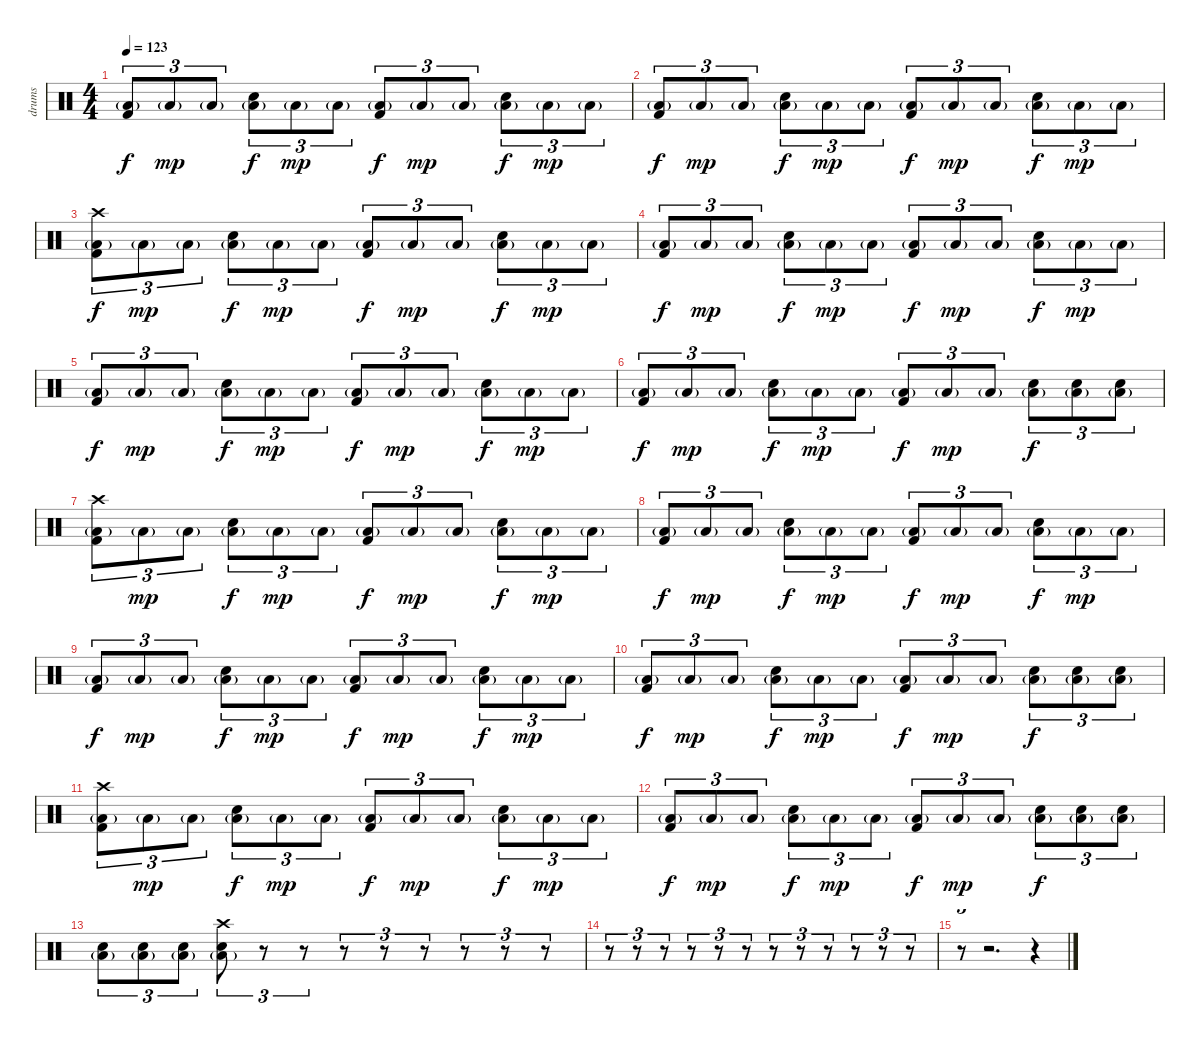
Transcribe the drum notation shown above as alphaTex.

\track ("drums" "drums") {instrument percussion}
\staff {score}
\articulation defaults
\ts (4 4)
\tempo 123
\clef neutral
\ks c
("Low Floor Tom (hit)"{g} "Kick (hit) 2").8{tu (3 2) txt "" dy f} "Low Floor Tom (hit)"{g}.8{tu (3 2) txt "" dy mp} "Low Floor Tom (hit)"{g}.8{tu (3 2) txt ""} ("Low Floor Tom (hit)"{g} "Electric Snare (hit)").8{tu (3 2) txt "" dy f} "Low Floor Tom (hit)"{g}.8{tu (3 2) txt "" dy mp} "Low Floor Tom (hit)"{g}.8{tu (3 2) txt ""} ("Low Floor Tom (hit)"{g} "Kick (hit) 2").8{tu (3 2) txt "" dy f} "Low Floor Tom (hit)"{g}.8{tu (3 2) txt "" dy mp} "Low Floor Tom (hit)"{g}.8{tu (3 2) txt ""} ("Low Floor Tom (hit)"{g} "Electric Snare (hit)").8{tu (3 2) txt "" dy f} "Low Floor Tom (hit)"{g}.8{tu (3 2) txt "" dy mp} "Low Floor Tom (hit)"{g}.8{tu (3 2) txt ""} |
("Low Floor Tom (hit)"{g} "Kick (hit) 2").8{tu (3 2) txt "" dy f} "Low Floor Tom (hit)"{g}.8{tu (3 2) txt "" dy mp} "Low Floor Tom (hit)"{g}.8{tu (3 2) txt ""} ("Low Floor Tom (hit)"{g} "Electric Snare (hit)").8{tu (3 2) txt "" dy f} "Low Floor Tom (hit)"{g}.8{tu (3 2) txt "" dy mp} "Low Floor Tom (hit)"{g}.8{tu (3 2) txt ""} ("Low Floor Tom (hit)"{g} "Kick (hit) 2").8{tu (3 2) txt "" dy f} "Low Floor Tom (hit)"{g}.8{tu (3 2) txt "" dy mp} "Low Floor Tom (hit)"{g}.8{tu (3 2) txt ""} ("Low Floor Tom (hit)"{g} "Electric Snare (hit)").8{tu (3 2) txt "" dy f} "Low Floor Tom (hit)"{g}.8{tu (3 2) txt "" dy mp} "Low Floor Tom (hit)"{g}.8{tu (3 2) txt ""} |
("Low Floor Tom (hit)"{g} "Kick (hit) 2" "Crash high (hit)").8{tu (3 2) txt "" dy f} "Low Floor Tom (hit)"{g}.8{tu (3 2) txt "" dy mp} "Low Floor Tom (hit)"{g}.8{tu (3 2) txt ""} ("Low Floor Tom (hit)"{g} "Electric Snare (hit)").8{tu (3 2) txt "" dy f} "Low Floor Tom (hit)"{g}.8{tu (3 2) txt "" dy mp} "Low Floor Tom (hit)"{g}.8{tu (3 2) txt ""} ("Low Floor Tom (hit)"{g} "Kick (hit) 2").8{tu (3 2) txt "" dy f} "Low Floor Tom (hit)"{g}.8{tu (3 2) txt "" dy mp} "Low Floor Tom (hit)"{g}.8{tu (3 2) txt ""} ("Low Floor Tom (hit)"{g} "Electric Snare (hit)").8{tu (3 2) txt "" dy f} "Low Floor Tom (hit)"{g}.8{tu (3 2) txt "" dy mp} "Low Floor Tom (hit)"{g}.8{tu (3 2) txt ""} |
("Low Floor Tom (hit)"{g} "Kick (hit) 2").8{tu (3 2) txt "" dy f} "Low Floor Tom (hit)"{g}.8{tu (3 2) txt "" dy mp} "Low Floor Tom (hit)"{g}.8{tu (3 2) txt ""} ("Low Floor Tom (hit)"{g} "Electric Snare (hit)").8{tu (3 2) txt "" dy f} "Low Floor Tom (hit)"{g}.8{tu (3 2) txt "" dy mp} "Low Floor Tom (hit)"{g}.8{tu (3 2) txt ""} ("Low Floor Tom (hit)"{g} "Kick (hit) 2").8{tu (3 2) txt "" dy f} "Low Floor Tom (hit)"{g}.8{tu (3 2) txt "" dy mp} "Low Floor Tom (hit)"{g}.8{tu (3 2) txt ""} ("Low Floor Tom (hit)"{g} "Electric Snare (hit)").8{tu (3 2) txt "" dy f} "Low Floor Tom (hit)"{g}.8{tu (3 2) txt "" dy mp} "Low Floor Tom (hit)"{g}.8{tu (3 2) txt ""} |
("Low Floor Tom (hit)"{g} "Kick (hit) 2").8{tu (3 2) txt "" dy f} "Low Floor Tom (hit)"{g}.8{tu (3 2) txt "" dy mp} "Low Floor Tom (hit)"{g}.8{tu (3 2) txt ""} ("Low Floor Tom (hit)"{g} "Electric Snare (hit)").8{tu (3 2) txt "" dy f} "Low Floor Tom (hit)"{g}.8{tu (3 2) txt "" dy mp} "Low Floor Tom (hit)"{g}.8{tu (3 2) txt ""} ("Low Floor Tom (hit)"{g} "Kick (hit) 2").8{tu (3 2) txt "" dy f} "Low Floor Tom (hit)"{g}.8{tu (3 2) txt "" dy mp} "Low Floor Tom (hit)"{g}.8{tu (3 2) txt ""} ("Low Floor Tom (hit)"{g} "Electric Snare (hit)").8{tu (3 2) txt "" dy f} "Low Floor Tom (hit)"{g}.8{tu (3 2) txt "" dy mp} "Low Floor Tom (hit)"{g}.8{tu (3 2) txt ""} |
("Low Floor Tom (hit)"{g} "Kick (hit) 2").8{tu (3 2) txt "" dy f} "Low Floor Tom (hit)"{g}.8{tu (3 2) txt "" dy mp} "Low Floor Tom (hit)"{g}.8{tu (3 2) txt ""} ("Low Floor Tom (hit)"{g} "Electric Snare (hit)").8{tu (3 2) txt "" dy f} "Low Floor Tom (hit)"{g}.8{tu (3 2) txt "" dy mp} "Low Floor Tom (hit)"{g}.8{tu (3 2) txt ""} ("Low Floor Tom (hit)"{g} "Kick (hit) 2").8{tu (3 2) txt "" dy f} "Low Floor Tom (hit)"{g}.8{tu (3 2) txt "" dy mp} "Low Floor Tom (hit)"{g}.8{tu (3 2) txt ""} ("Low Floor Tom (hit)"{g} "Electric Snare (hit)").8{tu (3 2) txt "" dy f} ("Low Floor Tom (hit)"{g} "Electric Snare (hit)").8{tu (3 2) txt ""} ("Low Floor Tom (hit)"{g} "Electric Snare (hit)").8{tu (3 2) txt ""} |
("Low Floor Tom (hit)"{g} "Kick (hit) 2" "Crash high (hit)").8{tu (3 2) txt ""} "Low Floor Tom (hit)"{g}.8{tu (3 2) txt "" dy mp} "Low Floor Tom (hit)"{g}.8{tu (3 2) txt ""} ("Low Floor Tom (hit)"{g} "Electric Snare (hit)").8{tu (3 2) txt "" dy f} "Low Floor Tom (hit)"{g}.8{tu (3 2) txt "" dy mp} "Low Floor Tom (hit)"{g}.8{tu (3 2) txt ""} ("Low Floor Tom (hit)"{g} "Kick (hit) 2").8{tu (3 2) txt "" dy f} "Low Floor Tom (hit)"{g}.8{tu (3 2) txt "" dy mp} "Low Floor Tom (hit)"{g}.8{tu (3 2) txt ""} ("Low Floor Tom (hit)"{g} "Electric Snare (hit)").8{tu (3 2) txt "" dy f} "Low Floor Tom (hit)"{g}.8{tu (3 2) txt "" dy mp} "Low Floor Tom (hit)"{g}.8{tu (3 2) txt ""} |
("Low Floor Tom (hit)"{g} "Kick (hit) 2").8{tu (3 2) txt "" dy f} "Low Floor Tom (hit)"{g}.8{tu (3 2) txt "" dy mp} "Low Floor Tom (hit)"{g}.8{tu (3 2) txt ""} ("Low Floor Tom (hit)"{g} "Electric Snare (hit)").8{tu (3 2) txt "" dy f} "Low Floor Tom (hit)"{g}.8{tu (3 2) txt "" dy mp} "Low Floor Tom (hit)"{g}.8{tu (3 2) txt ""} ("Low Floor Tom (hit)"{g} "Kick (hit) 2").8{tu (3 2) txt "" dy f} "Low Floor Tom (hit)"{g}.8{tu (3 2) txt "" dy mp} "Low Floor Tom (hit)"{g}.8{tu (3 2) txt ""} ("Low Floor Tom (hit)"{g} "Electric Snare (hit)").8{tu (3 2) txt "" dy f} "Low Floor Tom (hit)"{g}.8{tu (3 2) txt "" dy mp} "Low Floor Tom (hit)"{g}.8{tu (3 2) txt ""} |
("Low Floor Tom (hit)"{g} "Kick (hit) 2").8{tu (3 2) txt "" dy f} "Low Floor Tom (hit)"{g}.8{tu (3 2) txt "" dy mp} "Low Floor Tom (hit)"{g}.8{tu (3 2) txt ""} ("Low Floor Tom (hit)"{g} "Electric Snare (hit)").8{tu (3 2) txt "" dy f} "Low Floor Tom (hit)"{g}.8{tu (3 2) txt "" dy mp} "Low Floor Tom (hit)"{g}.8{tu (3 2) txt ""} ("Low Floor Tom (hit)"{g} "Kick (hit) 2").8{tu (3 2) txt "" dy f} "Low Floor Tom (hit)"{g}.8{tu (3 2) txt "" dy mp} "Low Floor Tom (hit)"{g}.8{tu (3 2) txt ""} ("Low Floor Tom (hit)"{g} "Electric Snare (hit)").8{tu (3 2) txt "" dy f} "Low Floor Tom (hit)"{g}.8{tu (3 2) txt "" dy mp} "Low Floor Tom (hit)"{g}.8{tu (3 2) txt ""} |
("Low Floor Tom (hit)"{g} "Kick (hit) 2").8{tu (3 2) txt "" dy f} "Low Floor Tom (hit)"{g}.8{tu (3 2) txt "" dy mp} "Low Floor Tom (hit)"{g}.8{tu (3 2) txt ""} ("Low Floor Tom (hit)"{g} "Electric Snare (hit)").8{tu (3 2) txt "" dy f} "Low Floor Tom (hit)"{g}.8{tu (3 2) txt "" dy mp} "Low Floor Tom (hit)"{g}.8{tu (3 2) txt ""} ("Low Floor Tom (hit)"{g} "Kick (hit) 2").8{tu (3 2) txt "" dy f} "Low Floor Tom (hit)"{g}.8{tu (3 2) txt "" dy mp} "Low Floor Tom (hit)"{g}.8{tu (3 2) txt ""} ("Low Floor Tom (hit)"{g} "Electric Snare (hit)").8{tu (3 2) txt "" dy f} ("Low Floor Tom (hit)"{g} "Electric Snare (hit)").8{tu (3 2) txt ""} ("Low Floor Tom (hit)"{g} "Electric Snare (hit)").8{tu (3 2) txt ""} |
("Low Floor Tom (hit)"{g} "Kick (hit) 2" "Crash high (hit)").8{tu (3 2) txt ""} "Low Floor Tom (hit)"{g}.8{tu (3 2) txt "" dy mp} "Low Floor Tom (hit)"{g}.8{tu (3 2) txt ""} ("Low Floor Tom (hit)"{g} "Electric Snare (hit)").8{tu (3 2) txt "" dy f} "Low Floor Tom (hit)"{g}.8{tu (3 2) txt "" dy mp} "Low Floor Tom (hit)"{g}.8{tu (3 2) txt ""} ("Low Floor Tom (hit)"{g} "Kick (hit) 2").8{tu (3 2) txt "" dy f} "Low Floor Tom (hit)"{g}.8{tu (3 2) txt "" dy mp} "Low Floor Tom (hit)"{g}.8{tu (3 2) txt ""} ("Low Floor Tom (hit)"{g} "Electric Snare (hit)").8{tu (3 2) txt "" dy f} "Low Floor Tom (hit)"{g}.8{tu (3 2) txt "" dy mp} "Low Floor Tom (hit)"{g}.8{tu (3 2) txt ""} |
("Low Floor Tom (hit)"{g} "Kick (hit) 2").8{tu (3 2) txt "" dy f} "Low Floor Tom (hit)"{g}.8{tu (3 2) txt "" dy mp} "Low Floor Tom (hit)"{g}.8{tu (3 2) txt ""} ("Low Floor Tom (hit)"{g} "Electric Snare (hit)").8{tu (3 2) txt "" dy f} "Low Floor Tom (hit)"{g}.8{tu (3 2) txt "" dy mp} "Low Floor Tom (hit)"{g}.8{tu (3 2) txt ""} ("Low Floor Tom (hit)"{g} "Kick (hit) 2").8{tu (3 2) txt "" dy f} "Low Floor Tom (hit)"{g}.8{tu (3 2) txt "" dy mp} "Low Floor Tom (hit)"{g}.8{tu (3 2) txt ""} ("Low Floor Tom (hit)"{g} "Electric Snare (hit)").8{tu (3 2) txt "" dy f} ("Low Floor Tom (hit)"{g} "Electric Snare (hit)").8{tu (3 2) txt ""} ("Low Floor Tom (hit)"{g} "Electric Snare (hit)").8{tu (3 2) txt ""} |
("Low Floor Tom (hit)"{g} "Electric Snare (hit)").8{tu (3 2) txt ""} ("Low Floor Tom (hit)"{g} "Electric Snare (hit)").8{tu (3 2) txt ""} ("Low Floor Tom (hit)"{g} "Electric Snare (hit)").8{tu (3 2) txt ""} ("Low Floor Tom (hit)"{g} "Electric Snare (hit)" "Crash high (hit)").8{tu (3 2) txt ""} r.8{tu (3 2) txt ""} r.8{tu (3 2) txt ""} r.8{tu (3 2) txt ""} r.8{tu (3 2) txt ""} r.8{tu (3 2) txt ""} r.8{tu (3 2) txt ""} r.8{tu (3 2) txt ""} r.8{tu (3 2) txt ""} |
r.8{tu (3 2) txt ""} r.8{tu (3 2) txt ""} r.8{tu (3 2) txt ""} r.8{tu (3 2) txt ""} r.8{tu (3 2) txt ""} r.8{tu (3 2) txt ""} r.8{tu (3 2) txt ""} r.8{tu (3 2) txt ""} r.8{tu (3 2) txt ""} r.8{tu (3 2) txt ""} r.8{tu (3 2) txt ""} r.8{tu (3 2) txt ""} |
r.8{tu (3 2) txt ""} r.2{d txt ""} r.4{tu (3 2)}
